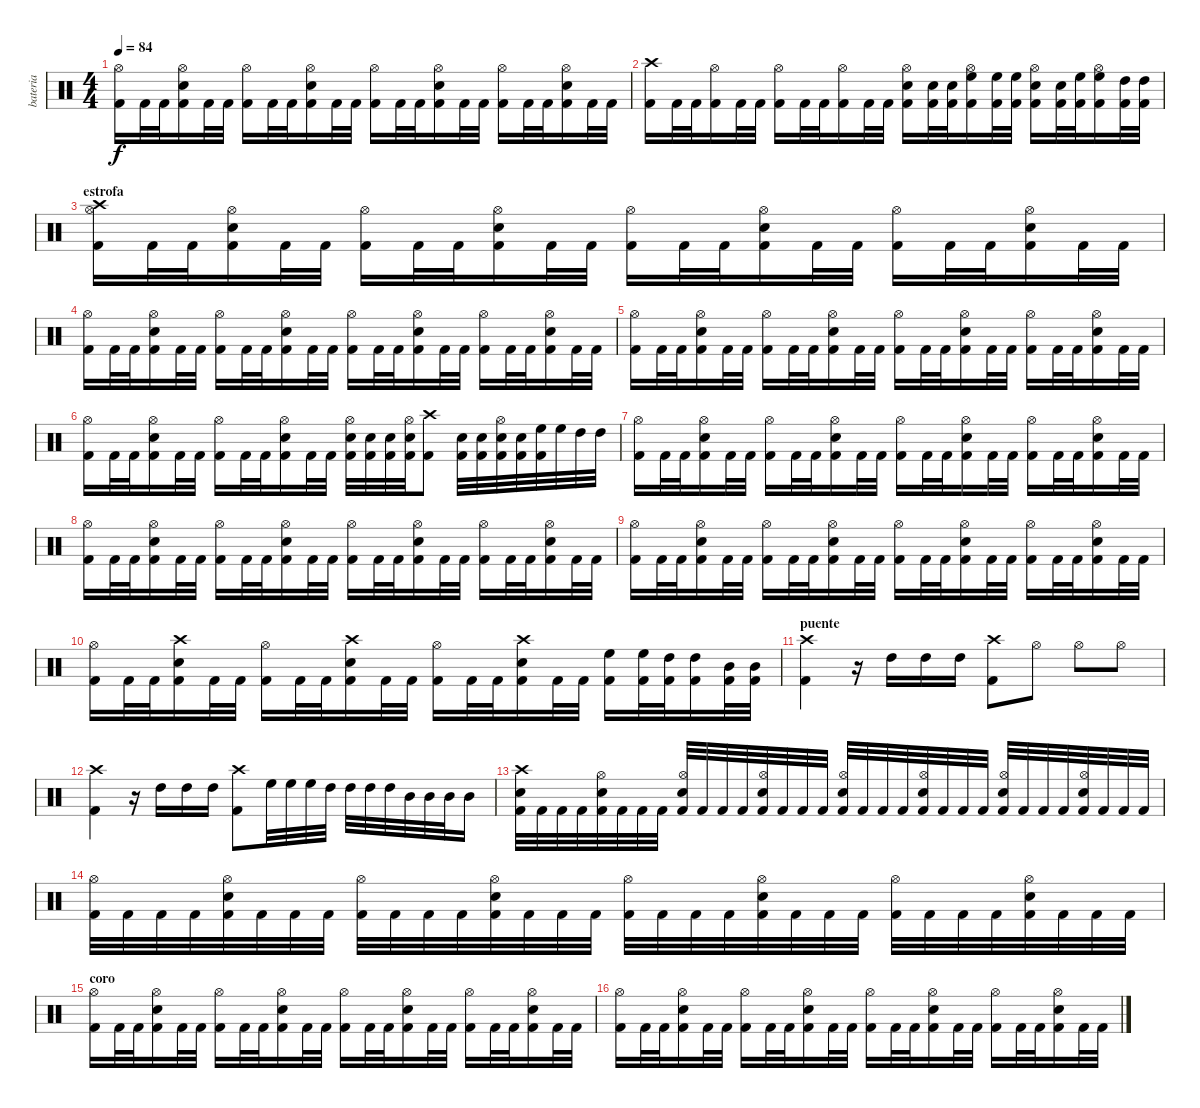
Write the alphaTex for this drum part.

\track ("bateria" "bateria") {instrument percussion}
\staff {score}
\articulation defaults
\ts (4 4)
\tempo 84
\clef neutral
\ks c
("Kick (hit) 2" "Hi-Hat (open)").16{dy f} "Kick (hit) 2".32 "Kick (hit) 2".32 ("Kick (hit) 2" "Electric Snare (hit)" "Hi-Hat (open)").16 "Kick (hit) 2".32 "Kick (hit) 2".32 ("Kick (hit) 2" "Hi-Hat (open)").16 "Kick (hit) 2".32 "Kick (hit) 2".32 ("Kick (hit) 2" "Electric Snare (hit)" "Hi-Hat (open)").16 "Kick (hit) 2".32 "Kick (hit) 2".32 ("Kick (hit) 2" "Hi-Hat (open)").16 "Kick (hit) 2".32 "Kick (hit) 2".32 ("Kick (hit) 2" "Electric Snare (hit)" "Hi-Hat (open)").16 "Kick (hit) 2".32 "Kick (hit) 2".32 ("Kick (hit) 2" "Hi-Hat (open)").16 "Kick (hit) 2".32 "Kick (hit) 2".32 ("Kick (hit) 2" "Electric Snare (hit)" "Hi-Hat (open)").16 "Kick (hit) 2".32 "Kick (hit) 2".32 |
("Kick (hit) 2" "Crash high (hit)").16 "Kick (hit) 2".32 "Kick (hit) 2".32 ("Kick (hit) 2" "Hi-Hat (open)").16 "Kick (hit) 2".32 "Kick (hit) 2".32 ("Kick (hit) 2" "Hi-Hat (open)").16 "Kick (hit) 2".32 "Kick (hit) 2".32 ("Kick (hit) 2" "Hi-Hat (open)").16 "Kick (hit) 2".32 "Kick (hit) 2".32 ("Kick (hit) 2" "Electric Snare (hit)" "Hi-Hat (open)").16 ("Kick (hit) 2" "Electric Snare (hit)").32 ("Kick (hit) 2" "Electric Snare (hit)").32 ("Kick (hit) 2" "High Floor Tom (hit)" "Hi-Hat (open)").16 ("Kick (hit) 2" "High Floor Tom (hit)").32 ("Kick (hit) 2" "High Floor Tom (hit)").32 ("Kick (hit) 2" "Electric Snare (hit)" "Hi-Hat (open)").16 ("Kick (hit) 2" "Electric Snare (hit)").32 ("Kick (hit) 2" "High Floor Tom (hit)").32 ("Kick (hit) 2" "High Floor Tom (hit)" "Hi-Hat (open)").16 ("Kick (hit) 2" "High Tom (hit)").32 ("Kick (hit) 2" "High Tom (hit)").32 |
\section ("" "estrofa")
("Kick (hit) 2" "Crash high (hit)" "Hi-Hat (open)").16 "Kick (hit) 2".32 "Kick (hit) 2".32 ("Kick (hit) 2" "Electric Snare (hit)" "Hi-Hat (open)").16 "Kick (hit) 2".32 "Kick (hit) 2".32 ("Kick (hit) 2" "Hi-Hat (open)").16 "Kick (hit) 2".32 "Kick (hit) 2".32 ("Kick (hit) 2" "Electric Snare (hit)" "Hi-Hat (open)").16 "Kick (hit) 2".32 "Kick (hit) 2".32 ("Kick (hit) 2" "Hi-Hat (open)").16 "Kick (hit) 2".32 "Kick (hit) 2".32 ("Kick (hit) 2" "Electric Snare (hit)" "Hi-Hat (open)").16 "Kick (hit) 2".32 "Kick (hit) 2".32 ("Kick (hit) 2" "Hi-Hat (open)").16 "Kick (hit) 2".32 "Kick (hit) 2".32 ("Kick (hit) 2" "Electric Snare (hit)" "Hi-Hat (open)").16 "Kick (hit) 2".32 "Kick (hit) 2".32 |
("Kick (hit) 2" "Hi-Hat (open)").16 "Kick (hit) 2".32 "Kick (hit) 2".32 ("Kick (hit) 2" "Electric Snare (hit)" "Hi-Hat (open)").16 "Kick (hit) 2".32 "Kick (hit) 2".32 ("Kick (hit) 2" "Hi-Hat (open)").16 "Kick (hit) 2".32 "Kick (hit) 2".32 ("Kick (hit) 2" "Electric Snare (hit)" "Hi-Hat (open)").16 "Kick (hit) 2".32 "Kick (hit) 2".32 ("Kick (hit) 2" "Hi-Hat (open)").16 "Kick (hit) 2".32 "Kick (hit) 2".32 ("Kick (hit) 2" "Electric Snare (hit)" "Hi-Hat (open)").16 "Kick (hit) 2".32 "Kick (hit) 2".32 ("Kick (hit) 2" "Hi-Hat (open)").16 "Kick (hit) 2".32 "Kick (hit) 2".32 ("Kick (hit) 2" "Electric Snare (hit)" "Hi-Hat (open)").16 "Kick (hit) 2".32 "Kick (hit) 2".32 |
("Kick (hit) 2" "Hi-Hat (open)").16 "Kick (hit) 2".32 "Kick (hit) 2".32 ("Kick (hit) 2" "Electric Snare (hit)" "Hi-Hat (open)").16 "Kick (hit) 2".32 "Kick (hit) 2".32 ("Kick (hit) 2" "Hi-Hat (open)").16 "Kick (hit) 2".32 "Kick (hit) 2".32 ("Kick (hit) 2" "Electric Snare (hit)" "Hi-Hat (open)").16 "Kick (hit) 2".32 "Kick (hit) 2".32 ("Kick (hit) 2" "Hi-Hat (open)").16 "Kick (hit) 2".32 "Kick (hit) 2".32 ("Kick (hit) 2" "Electric Snare (hit)" "Hi-Hat (open)").16 "Kick (hit) 2".32 "Kick (hit) 2".32 ("Kick (hit) 2" "Hi-Hat (open)").16 "Kick (hit) 2".32 "Kick (hit) 2".32 ("Kick (hit) 2" "Electric Snare (hit)" "Hi-Hat (open)").16 "Kick (hit) 2".32 "Kick (hit) 2".32 |
("Kick (hit) 2" "Hi-Hat (open)").16 "Kick (hit) 2".32 "Kick (hit) 2".32 ("Kick (hit) 2" "Electric Snare (hit)" "Hi-Hat (open)").16 "Kick (hit) 2".32 "Kick (hit) 2".32 ("Kick (hit) 2" "Hi-Hat (open)").16 "Kick (hit) 2".32 "Kick (hit) 2".32 ("Kick (hit) 2" "Electric Snare (hit)" "Hi-Hat (open)").16 "Kick (hit) 2".32 "Kick (hit) 2".32 ("Kick (hit) 2" "Electric Snare (hit)" "Hi-Hat (open)").32 ("Kick (hit) 2" "Electric Snare (hit)").32 ("Kick (hit) 2" "Electric Snare (hit)").32 ("Kick (hit) 2" "Electric Snare (hit)" "Hi-Hat (open)").32 ("Kick (hit) 2" "Crash high (hit)").8 ("Kick (hit) 2" "Electric Snare (hit)").32 ("Kick (hit) 2" "Electric Snare (hit)").32 ("Kick (hit) 2" "Electric Snare (hit)" "Hi-Hat (open)").32 ("Kick (hit) 2" "Electric Snare (hit)").32 ("Kick (hit) 2" "High Floor Tom (hit)").32 "High Floor Tom (hit)".32 "High Tom (hit)".32 "High Tom (hit)".32 |
("Kick (hit) 2" "Hi-Hat (open)").16 "Kick (hit) 2".32 "Kick (hit) 2".32 ("Kick (hit) 2" "Electric Snare (hit)" "Hi-Hat (open)").16 "Kick (hit) 2".32 "Kick (hit) 2".32 ("Kick (hit) 2" "Hi-Hat (open)").16 "Kick (hit) 2".32 "Kick (hit) 2".32 ("Kick (hit) 2" "Electric Snare (hit)" "Hi-Hat (open)").16 "Kick (hit) 2".32 "Kick (hit) 2".32 ("Kick (hit) 2" "Hi-Hat (open)").16 "Kick (hit) 2".32 "Kick (hit) 2".32 ("Kick (hit) 2" "Electric Snare (hit)" "Hi-Hat (open)").16 "Kick (hit) 2".32 "Kick (hit) 2".32 ("Kick (hit) 2" "Hi-Hat (open)").16 "Kick (hit) 2".32 "Kick (hit) 2".32 ("Kick (hit) 2" "Electric Snare (hit)" "Hi-Hat (open)").16 "Kick (hit) 2".32 "Kick (hit) 2".32 |
("Kick (hit) 2" "Hi-Hat (open)").16 "Kick (hit) 2".32 "Kick (hit) 2".32 ("Kick (hit) 2" "Electric Snare (hit)" "Hi-Hat (open)").16 "Kick (hit) 2".32 "Kick (hit) 2".32 ("Kick (hit) 2" "Hi-Hat (open)").16 "Kick (hit) 2".32 "Kick (hit) 2".32 ("Kick (hit) 2" "Electric Snare (hit)" "Hi-Hat (open)").16 "Kick (hit) 2".32 "Kick (hit) 2".32 ("Kick (hit) 2" "Hi-Hat (open)").16 "Kick (hit) 2".32 "Kick (hit) 2".32 ("Kick (hit) 2" "Electric Snare (hit)" "Hi-Hat (open)").16 "Kick (hit) 2".32 "Kick (hit) 2".32 ("Kick (hit) 2" "Hi-Hat (open)").16 "Kick (hit) 2".32 "Kick (hit) 2".32 ("Kick (hit) 2" "Electric Snare (hit)" "Hi-Hat (open)").16 "Kick (hit) 2".32 "Kick (hit) 2".32 |
("Kick (hit) 2" "Hi-Hat (open)").16 "Kick (hit) 2".32 "Kick (hit) 2".32 ("Kick (hit) 2" "Electric Snare (hit)" "Hi-Hat (open)").16 "Kick (hit) 2".32 "Kick (hit) 2".32 ("Kick (hit) 2" "Hi-Hat (open)").16 "Kick (hit) 2".32 "Kick (hit) 2".32 ("Kick (hit) 2" "Electric Snare (hit)" "Hi-Hat (open)").16 "Kick (hit) 2".32 "Kick (hit) 2".32 ("Kick (hit) 2" "Hi-Hat (open)").16 "Kick (hit) 2".32 "Kick (hit) 2".32 ("Kick (hit) 2" "Electric Snare (hit)" "Hi-Hat (open)").16 "Kick (hit) 2".32 "Kick (hit) 2".32 ("Kick (hit) 2" "Hi-Hat (open)").16 "Kick (hit) 2".32 "Kick (hit) 2".32 ("Kick (hit) 2" "Electric Snare (hit)" "Hi-Hat (open)").16 "Kick (hit) 2".32 "Kick (hit) 2".32 |
("Kick (hit) 2" "Hi-Hat (open)").16 "Kick (hit) 2".32 "Kick (hit) 2".32 ("Kick (hit) 2" "Electric Snare (hit)" "Crash high (hit)").16 "Kick (hit) 2".32 "Kick (hit) 2".32 ("Kick (hit) 2" "Hi-Hat (open)").16 "Kick (hit) 2".32 "Kick (hit) 2".32 ("Kick (hit) 2" "Electric Snare (hit)" "Crash high (hit)").16 "Kick (hit) 2".32 "Kick (hit) 2".32 ("Kick (hit) 2" "Hi-Hat (open)").16 "Kick (hit) 2".32 "Kick (hit) 2".32 ("Kick (hit) 2" "Electric Snare (hit)" "Crash high (hit)").16 "Kick (hit) 2".32 "Kick (hit) 2".32 ("Kick (hit) 2" "High Floor Tom (hit)").16 ("Kick (hit) 2" "High Floor Tom (hit)").32 ("Kick (hit) 2" "High Tom (hit)").32 ("Kick (hit) 2" "High Tom (hit)").16 ("Kick (hit) 2" "Mid Tom (hit)").32 ("Kick (hit) 2" "Mid Tom (hit)").32 |
\section ("" "puente")
("Kick (hit) 2" "Crash high (hit)").4 r.16 "High Tom (hit)".16 "High Tom (hit)".16 "High Tom (hit)".16 ("Kick (hit) 2" "Crash high (hit)").8 "Hi-Hat (open)".8 "Hi-Hat (open)".8 "Hi-Hat (open)".8 |
("Kick (hit) 2" "Crash high (hit)").4 r.16 "High Tom (hit)".16 "High Tom (hit)".16 "High Tom (hit)".16 ("Kick (hit) 2" "Crash high (hit)").8 "High Floor Tom (hit)".32 "High Floor Tom (hit)".32 "High Floor Tom (hit)".32 "High Tom (hit)".32 "High Tom (hit)".32 "High Tom (hit)".32 "High Tom (hit)".32 "Mid Tom (hit)".32 "Mid Tom (hit)".32 "Mid Tom (hit)".32 "Mid Tom (hit)".16 |
("Kick (hit) 2" "Electric Snare (hit)" "Crash high (hit)").32 "Kick (hit) 2".32 "Kick (hit) 2".32 "Kick (hit) 2".32 ("Kick (hit) 2" "Electric Snare (hit)" "Hi-Hat (open)").32 "Kick (hit) 2".32 "Kick (hit) 2".32 "Kick (hit) 2".32 ("Kick (hit) 2" "Electric Snare (hit)" "Hi-Hat (open)").32 "Kick (hit) 2".32 "Kick (hit) 2".32 "Kick (hit) 2".32 ("Kick (hit) 2" "Electric Snare (hit)" "Hi-Hat (open)").32 "Kick (hit) 2".32 "Kick (hit) 2".32 "Kick (hit) 2".32 ("Kick (hit) 2" "Electric Snare (hit)" "Hi-Hat (open)").32 "Kick (hit) 2".32 "Kick (hit) 2".32 "Kick (hit) 2".32 ("Kick (hit) 2" "Electric Snare (hit)" "Hi-Hat (open)").32 "Kick (hit) 2".32 "Kick (hit) 2".32 "Kick (hit) 2".32 ("Kick (hit) 2" "Electric Snare (hit)" "Hi-Hat (open)").32 "Kick (hit) 2".32 "Kick (hit) 2".32 "Kick (hit) 2".32 ("Kick (hit) 2" "Electric Snare (hit)" "Hi-Hat (open)").32 "Kick (hit) 2".32 "Kick (hit) 2".32 "Kick (hit) 2".32 |
("Kick (hit) 2" "Hi-Hat (open)").32 "Kick (hit) 2".32 "Kick (hit) 2".32 "Kick (hit) 2".32 ("Kick (hit) 2" "Electric Snare (hit)" "Hi-Hat (open)").32 "Kick (hit) 2".32 "Kick (hit) 2".32 "Kick (hit) 2".32 ("Kick (hit) 2" "Hi-Hat (open)").32 "Kick (hit) 2".32 "Kick (hit) 2".32 "Kick (hit) 2".32 ("Kick (hit) 2" "Electric Snare (hit)" "Hi-Hat (open)").32 "Kick (hit) 2".32 "Kick (hit) 2".32 "Kick (hit) 2".32 ("Kick (hit) 2" "Hi-Hat (open)").32 "Kick (hit) 2".32 "Kick (hit) 2".32 "Kick (hit) 2".32 ("Kick (hit) 2" "Electric Snare (hit)" "Hi-Hat (open)").32 "Kick (hit) 2".32 "Kick (hit) 2".32 "Kick (hit) 2".32 ("Kick (hit) 2" "Hi-Hat (open)").32 "Kick (hit) 2".32 "Kick (hit) 2".32 "Kick (hit) 2".32 ("Kick (hit) 2" "Electric Snare (hit)" "Hi-Hat (open)").32 "Kick (hit) 2".32 "Kick (hit) 2".32 "Kick (hit) 2".32 |
\section ("" "coro")
("Kick (hit) 2" "Hi-Hat (open)").16 "Kick (hit) 2".32 "Kick (hit) 2".32 ("Kick (hit) 2" "Electric Snare (hit)" "Hi-Hat (open)").16 "Kick (hit) 2".32 "Kick (hit) 2".32 ("Kick (hit) 2" "Hi-Hat (open)").16 "Kick (hit) 2".32 "Kick (hit) 2".32 ("Kick (hit) 2" "Electric Snare (hit)" "Hi-Hat (open)").16 "Kick (hit) 2".32 "Kick (hit) 2".32 ("Kick (hit) 2" "Hi-Hat (open)").16 "Kick (hit) 2".32 "Kick (hit) 2".32 ("Kick (hit) 2" "Electric Snare (hit)" "Hi-Hat (open)").16 "Kick (hit) 2".32 "Kick (hit) 2".32 ("Kick (hit) 2" "Hi-Hat (open)").16 "Kick (hit) 2".32 "Kick (hit) 2".32 ("Kick (hit) 2" "Electric Snare (hit)" "Hi-Hat (open)").16 "Kick (hit) 2".32 "Kick (hit) 2".32 |
("Kick (hit) 2" "Hi-Hat (open)").16 "Kick (hit) 2".32 "Kick (hit) 2".32 ("Kick (hit) 2" "Electric Snare (hit)" "Hi-Hat (open)").16 "Kick (hit) 2".32 "Kick (hit) 2".32 ("Kick (hit) 2" "Hi-Hat (open)").16 "Kick (hit) 2".32 "Kick (hit) 2".32 ("Kick (hit) 2" "Electric Snare (hit)" "Hi-Hat (open)").16 "Kick (hit) 2".32 "Kick (hit) 2".32 ("Kick (hit) 2" "Hi-Hat (open)").16 "Kick (hit) 2".32 "Kick (hit) 2".32 ("Kick (hit) 2" "Electric Snare (hit)" "Hi-Hat (open)").16 "Kick (hit) 2".32 "Kick (hit) 2".32 ("Kick (hit) 2" "Hi-Hat (open)").16 "Kick (hit) 2".32 "Kick (hit) 2".32 ("Kick (hit) 2" "Electric Snare (hit)" "Hi-Hat (open)").16 "Kick (hit) 2".32 "Kick (hit) 2".32
